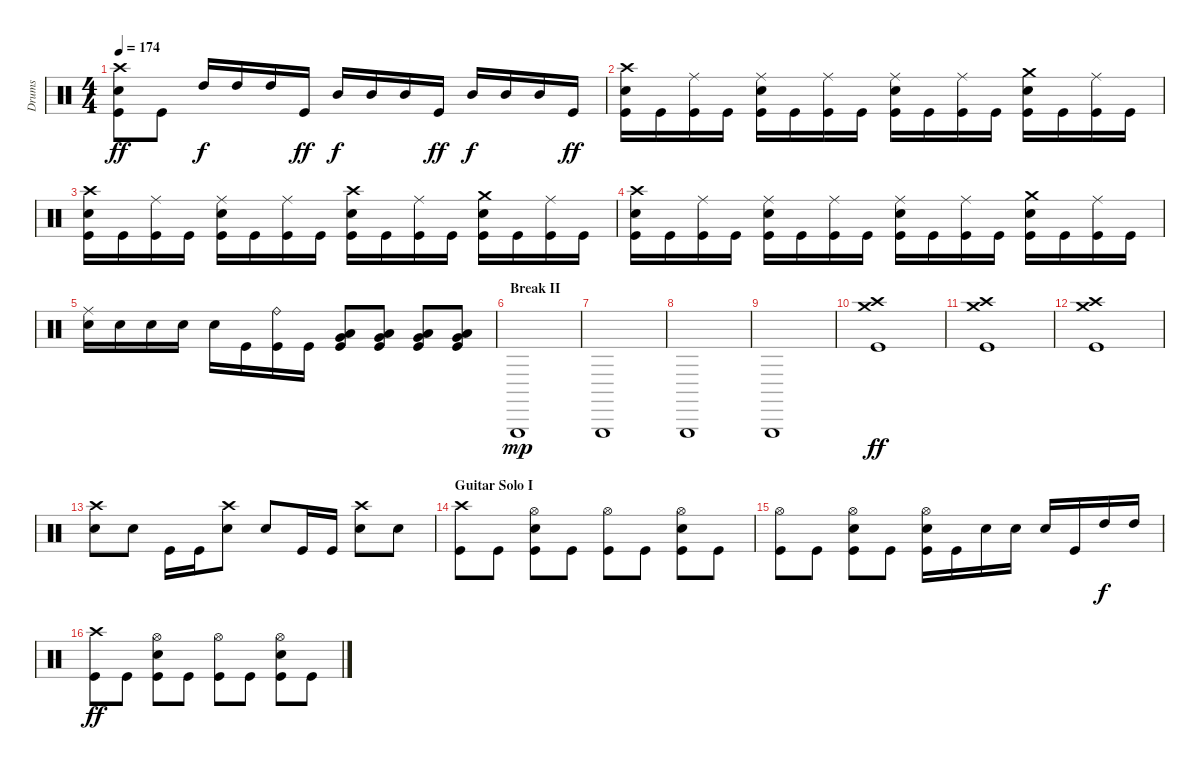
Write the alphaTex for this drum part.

\track ("Drums" "Drums") {instrument percussion}
\staff {score}
\articulation defaults
\ts (4 4)
\tempo 174
\clef neutral
\ks c
("Crash high (hit)" "Electric Snare (hit)" "Kick (hit)").8{dy ff} "Kick (hit)".8 "High Tom (hit)".16{dy f} "High Tom (hit)".16 "High Tom (hit)".16 "Kick (hit)".16{dy ff} "Mid Tom (hit)".16{dy f} "Mid Tom (hit)".16 "Mid Tom (hit)".16 "Kick (hit)".16{dy ff} "Mid Tom (hit)".16{dy f} "Mid Tom (hit)".16 "Mid Tom (hit)".16 "Kick (hit)".16{dy ff} |
("Crash high (hit)" "Electric Snare (hit)" "Kick (hit)").16 "Kick (hit)".16 ("Ride (middle)" "Kick (hit)").16 "Kick (hit)".16 ("Ride (middle)" "Electric Snare (hit)" "Kick (hit)").16 "Kick (hit)".16 ("Ride (middle)" "Kick (hit)").16 "Kick (hit)".16 ("Ride (middle)" "Electric Snare (hit)" "Kick (hit)").16 "Kick (hit)".16 ("Ride (middle)" "Kick (hit)").16 "Kick (hit)".16 ("Crash medium (hit)" "Electric Snare (hit)" "Kick (hit)").16 "Kick (hit)".16 ("Ride (middle)" "Kick (hit)").16 "Kick (hit)".16 |
("Crash high (hit)" "Electric Snare (hit)" "Kick (hit)").16 "Kick (hit)".16 ("Ride (middle)" "Kick (hit)").16 "Kick (hit)".16 ("Ride (middle)" "Electric Snare (hit)" "Kick (hit)").16 "Kick (hit)".16 ("Ride (middle)" "Kick (hit)").16 "Kick (hit)".16 ("Crash high (hit)" "Electric Snare (hit)" "Kick (hit)").16 "Kick (hit)".16 ("Ride (middle)" "Kick (hit)").16 "Kick (hit)".16 ("Crash medium (hit)" "Electric Snare (hit)" "Kick (hit)").16 "Kick (hit)".16 ("Ride (middle)" "Kick (hit)").16 "Kick (hit)".16 |
("Crash high (hit)" "Electric Snare (hit)" "Kick (hit)").16 "Kick (hit)".16 ("Ride (middle)" "Kick (hit)").16 "Kick (hit)".16 ("Ride (middle)" "Electric Snare (hit)" "Kick (hit)").16 "Kick (hit)".16 ("Ride (middle)" "Kick (hit)").16 "Kick (hit)".16 ("Ride (middle)" "Electric Snare (hit)" "Kick (hit)").16 "Kick (hit)".16 ("Ride (middle)" "Kick (hit)").16 "Kick (hit)".16 ("Crash medium (hit)" "Electric Snare (hit)" "Kick (hit)").16 "Kick (hit)".16 ("Ride (middle)" "Kick (hit)").16 "Kick (hit)".16 |
("Ride (middle)" "Electric Snare (hit)").16 "Electric Snare (hit)".16 "Electric Snare (hit)".16 "Electric Snare (hit)".16 "Electric Snare (hit)".16 "Kick (hit)".16 ("Ride (bell)" "Kick (hit)").16 "Kick (hit)".16 ("Low Tom (hit)" "Very Low Tom (hit)" "Kick (hit)").8 ("Low Tom (hit)" "Very Low Tom (hit)" "Kick (hit)").8 ("Low Tom (hit)" "Very Low Tom (hit)" "Kick (hit)").8 ("Low Tom (hit)" "Very Low Tom (hit)" "Kick (hit)").8 |
\section ("" "Break II")
"Triangle (hit)".1{dy mp} |
"Triangle (hit)".1 |
"Triangle (hit)".1 |
"Triangle (hit)".1 |
("Crash medium (hit)" "Crash high (hit)" "Kick (hit)").1{dy ff} |
("Crash medium (hit)" "Crash high (hit)" "Kick (hit)").1 |
("Crash medium (hit)" "Crash high (hit)" "Kick (hit)").1 |
("Crash high (hit)" "Electric Snare (hit)").8 "Electric Snare (hit)".8 "Kick (hit)".16 "Kick (hit)".16 ("Crash high (hit)" "Electric Snare (hit)").8 "Electric Snare (hit)".8 "Kick (hit)".16 "Kick (hit)".16 ("Crash high (hit)" "Electric Snare (hit)").8 "Electric Snare (hit)".8 |
\section ("" "Guitar Solo I")
("Crash high (hit)" "Kick (hit)").8 "Kick (hit)".8 ("Hi-Hat (open)" "Electric Snare (hit)" "Kick (hit)").8 "Kick (hit)".8 ("Hi-Hat (open)" "Kick (hit)").8 "Kick (hit)".8 ("Hi-Hat (open)" "Electric Snare (hit)" "Kick (hit)").8 "Kick (hit)".8 |
("Hi-Hat (open)" "Kick (hit)").8 "Kick (hit)".8 ("Hi-Hat (open)" "Electric Snare (hit)" "Kick (hit)").8 "Kick (hit)".8 ("Hi-Hat (open)" "Electric Snare (hit)" "Kick (hit)").16 "Kick (hit)".16 "Electric Snare (hit)".16 "Electric Snare (hit)".16 "Electric Snare (hit)".16 "Kick (hit)".16 "High Tom (hit)".16{dy f} "High Tom (hit)".16 |
("Crash high (hit)" "Kick (hit)").8{dy ff} "Kick (hit)".8 ("Hi-Hat (open)" "Electric Snare (hit)" "Kick (hit)").8 "Kick (hit)".8 ("Hi-Hat (open)" "Kick (hit)").8 "Kick (hit)".8 ("Hi-Hat (open)" "Electric Snare (hit)" "Kick (hit)").8 "Kick (hit)".8
